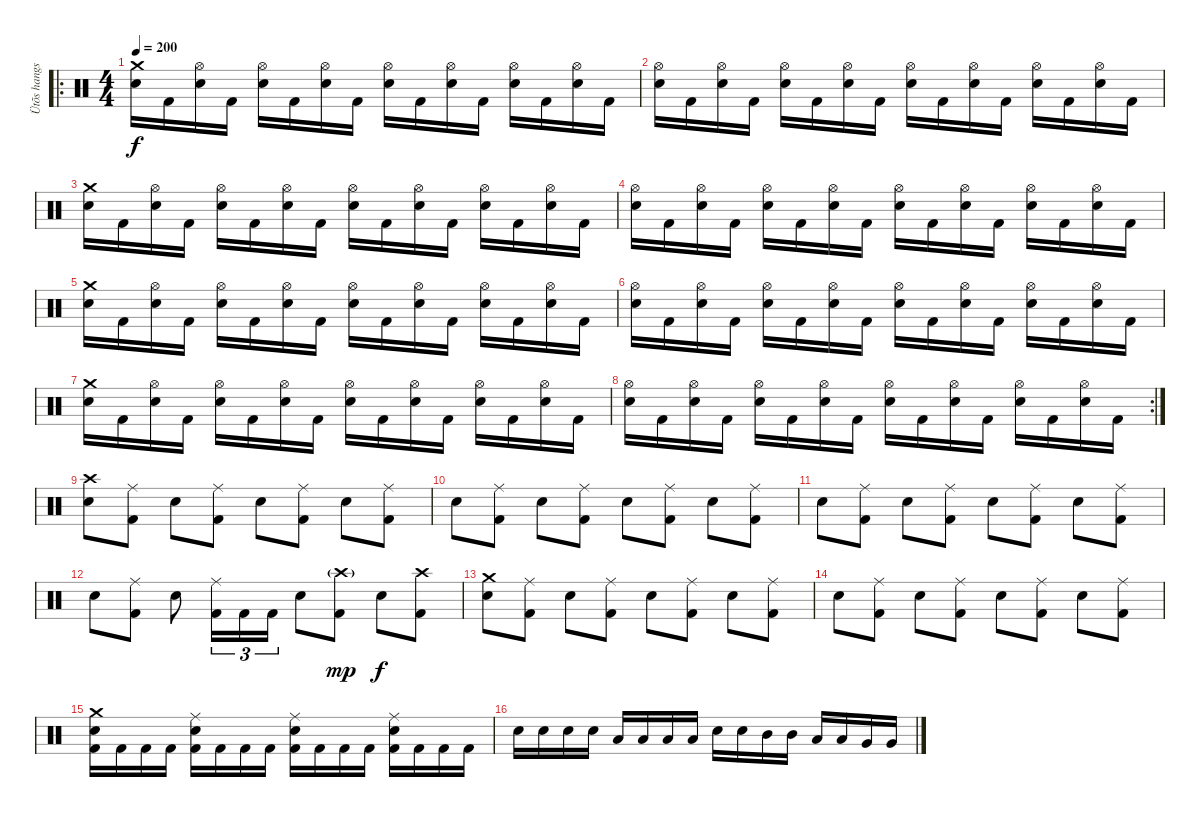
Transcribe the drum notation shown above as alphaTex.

\track ("Ütõs hangszer" "Ütõs hangs") {instrument percussion}
\staff {score}
\articulation defaults
\ro
\ts (4 4)
\tempo 200
\clef neutral
\ks c
("Crash medium (hit)" "Snare (hit) 2").16{dy f} "Kick (hit) 2".16 ("Hi-Hat (open)" "Snare (hit) 2").16 "Kick (hit) 2".16 ("Hi-Hat (open)" "Snare (hit) 2").16 "Kick (hit) 2".16 ("Hi-Hat (open)" "Snare (hit) 2").16 "Kick (hit) 2".16 ("Hi-Hat (open)" "Snare (hit) 2").16 "Kick (hit) 2".16 ("Hi-Hat (open)" "Snare (hit) 2").16 "Kick (hit) 2".16 ("Hi-Hat (open)" "Snare (hit) 2").16 "Kick (hit) 2".16 ("Hi-Hat (open)" "Snare (hit) 2").16 "Kick (hit) 2".16 |
("Hi-Hat (open)" "Snare (hit) 2").16 "Kick (hit) 2".16 ("Hi-Hat (open)" "Snare (hit) 2").16 "Kick (hit) 2".16 ("Hi-Hat (open)" "Snare (hit) 2").16 "Kick (hit) 2".16 ("Hi-Hat (open)" "Snare (hit) 2").16 "Kick (hit) 2".16 ("Hi-Hat (open)" "Snare (hit) 2").16 "Kick (hit) 2".16 ("Hi-Hat (open)" "Snare (hit) 2").16 "Kick (hit) 2".16 ("Hi-Hat (open)" "Snare (hit) 2").16 "Kick (hit) 2".16 ("Hi-Hat (open)" "Snare (hit) 2").16 "Kick (hit) 2".16 |
("Crash medium (hit)" "Snare (hit) 2").16 "Kick (hit) 2".16 ("Hi-Hat (open)" "Snare (hit) 2").16 "Kick (hit) 2".16 ("Hi-Hat (open)" "Snare (hit) 2").16 "Kick (hit) 2".16 ("Hi-Hat (open)" "Snare (hit) 2").16 "Kick (hit) 2".16 ("Hi-Hat (open)" "Snare (hit) 2").16 "Kick (hit) 2".16 ("Hi-Hat (open)" "Snare (hit) 2").16 "Kick (hit) 2".16 ("Hi-Hat (open)" "Snare (hit) 2").16 "Kick (hit) 2".16 ("Hi-Hat (open)" "Snare (hit) 2").16 "Kick (hit) 2".16 |
("Hi-Hat (open)" "Snare (hit) 2").16 "Kick (hit) 2".16 ("Hi-Hat (open)" "Snare (hit) 2").16 "Kick (hit) 2".16 ("Hi-Hat (open)" "Snare (hit) 2").16 "Kick (hit) 2".16 ("Hi-Hat (open)" "Snare (hit) 2").16 "Kick (hit) 2".16 ("Hi-Hat (open)" "Snare (hit) 2").16 "Kick (hit) 2".16 ("Hi-Hat (open)" "Snare (hit) 2").16 "Kick (hit) 2".16 ("Hi-Hat (open)" "Snare (hit) 2").16 "Kick (hit) 2".16 ("Hi-Hat (open)" "Snare (hit) 2").16 "Kick (hit) 2".16 |
("Crash medium (hit)" "Snare (hit) 2").16 "Kick (hit) 2".16 ("Hi-Hat (open)" "Snare (hit) 2").16 "Kick (hit) 2".16 ("Hi-Hat (open)" "Snare (hit) 2").16 "Kick (hit) 2".16 ("Hi-Hat (open)" "Snare (hit) 2").16 "Kick (hit) 2".16 ("Hi-Hat (open)" "Snare (hit) 2").16 "Kick (hit) 2".16 ("Hi-Hat (open)" "Snare (hit) 2").16 "Kick (hit) 2".16 ("Hi-Hat (open)" "Snare (hit) 2").16 "Kick (hit) 2".16 ("Hi-Hat (open)" "Snare (hit) 2").16 "Kick (hit) 2".16 |
("Hi-Hat (open)" "Snare (hit) 2").16 "Kick (hit) 2".16 ("Hi-Hat (open)" "Snare (hit) 2").16 "Kick (hit) 2".16 ("Hi-Hat (open)" "Snare (hit) 2").16 "Kick (hit) 2".16 ("Hi-Hat (open)" "Snare (hit) 2").16 "Kick (hit) 2".16 ("Hi-Hat (open)" "Snare (hit) 2").16 "Kick (hit) 2".16 ("Hi-Hat (open)" "Snare (hit) 2").16 "Kick (hit) 2".16 ("Hi-Hat (open)" "Snare (hit) 2").16 "Kick (hit) 2".16 ("Hi-Hat (open)" "Snare (hit) 2").16 "Kick (hit) 2".16 |
("Crash medium (hit)" "Snare (hit) 2").16 "Kick (hit) 2".16 ("Hi-Hat (open)" "Snare (hit) 2").16 "Kick (hit) 2".16 ("Hi-Hat (open)" "Snare (hit) 2").16 "Kick (hit) 2".16 ("Hi-Hat (open)" "Snare (hit) 2").16 "Kick (hit) 2".16 ("Hi-Hat (open)" "Snare (hit) 2").16 "Kick (hit) 2".16 ("Hi-Hat (open)" "Snare (hit) 2").16 "Kick (hit) 2".16 ("Hi-Hat (open)" "Snare (hit) 2").16 "Kick (hit) 2".16 ("Hi-Hat (open)" "Snare (hit) 2").16 "Kick (hit) 2".16 |
\rc 2
("Hi-Hat (open)" "Snare (hit) 2").16 "Kick (hit) 2".16 ("Hi-Hat (open)" "Snare (hit) 2").16 "Kick (hit) 2".16 ("Hi-Hat (open)" "Snare (hit) 2").16 "Kick (hit) 2".16 ("Hi-Hat (open)" "Snare (hit) 2").16 "Kick (hit) 2".16 ("Hi-Hat (open)" "Snare (hit) 2").16 "Kick (hit) 2".16 ("Hi-Hat (open)" "Snare (hit) 2").16 "Kick (hit) 2".16 ("Hi-Hat (open)" "Snare (hit) 2").16 "Kick (hit) 2".16 ("Hi-Hat (open)" "Snare (hit) 2").16 "Kick (hit) 2".16 |
("Crash high (hit)" "Snare (hit) 2").8 ("Ride (middle)" "Kick (hit) 2").8 "Snare (hit) 2".8 ("Ride (middle)" "Kick (hit) 2").8 "Snare (hit) 2".8 ("Ride (middle)" "Kick (hit) 2").8 "Snare (hit) 2".8 ("Ride (middle)" "Kick (hit) 2").8 |
"Snare (hit) 2".8 ("Ride (middle)" "Kick (hit) 2").8 "Snare (hit) 2".8 ("Ride (middle)" "Kick (hit) 2").8 "Snare (hit) 2".8 ("Ride (middle)" "Kick (hit) 2").8 "Snare (hit) 2".8 ("Ride (middle)" "Kick (hit) 2").8 |
"Snare (hit) 2".8 ("Ride (middle)" "Kick (hit) 2").8 "Snare (hit) 2".8 ("Ride (middle)" "Kick (hit) 2").8 "Snare (hit) 2".8 ("Ride (middle)" "Kick (hit) 2").8 "Snare (hit) 2".8 ("Ride (middle)" "Kick (hit) 2").8 |
"Snare (hit) 2".8 ("Ride (middle)" "Kick (hit) 2").8 "Snare (hit) 2".8 ("Ride (middle)" "Kick (hit) 2").16{tu (3 2)} "Kick (hit) 2".16{tu (3 2)} "Kick (hit) 2".16{tu (3 2)} "Snare (hit) 2".8 ("Crash high (hit)"{g} "Kick (hit) 2").8{dy mp} "Snare (hit) 2".8{dy f} ("Crash high (hit)" "Kick (hit) 2").8 |
("Crash medium (hit)" "Snare (hit) 2").8 ("Ride (middle)" "Kick (hit) 2").8 "Snare (hit) 2".8 ("Ride (middle)" "Kick (hit) 2").8 "Snare (hit) 2".8 ("Ride (middle)" "Kick (hit) 2").8 "Snare (hit) 2".8 ("Ride (middle)" "Kick (hit) 2").8 |
"Snare (hit) 2".8 ("Ride (middle)" "Kick (hit) 2").8 "Snare (hit) 2".8 ("Ride (middle)" "Kick (hit) 2").8 "Snare (hit) 2".8 ("Ride (middle)" "Kick (hit) 2").8 "Snare (hit) 2".8 ("Ride (middle)" "Kick (hit) 2").8 |
("Crash medium (hit)" "Snare (hit) 2" "Kick (hit) 2").16 "Kick (hit) 2".16 "Kick (hit) 2".16 "Kick (hit) 2".16 ("Ride (middle)" "Snare (hit) 2" "Kick (hit) 2").16 "Kick (hit) 2".16 "Kick (hit) 2".16 "Kick (hit) 2".16 ("Ride (middle)" "Snare (hit) 2" "Kick (hit) 2").16 "Kick (hit) 2".16 "Kick (hit) 2".16 "Kick (hit) 2".16 ("Ride (middle)" "Snare (hit) 2" "Kick (hit) 2").16 "Kick (hit) 2".16 "Kick (hit) 2".16 "Kick (hit) 2".16 |
"Electric Snare (hit)".16 "Electric Snare (hit)".16 "Electric Snare (hit)".16 "Electric Snare (hit)".16 "Low Tom (hit)".16 "Low Tom (hit)".16 "Low Tom (hit)".16 "Low Tom (hit)".16 "Electric Snare (hit)".16 "Electric Snare (hit)".16 "Mid Tom (hit)".16 "Mid Tom (hit)".16 "Low Tom (hit)".16 "Low Tom (hit)".16 "Very Low Tom (hit)".16 "Very Low Tom (hit)".16
